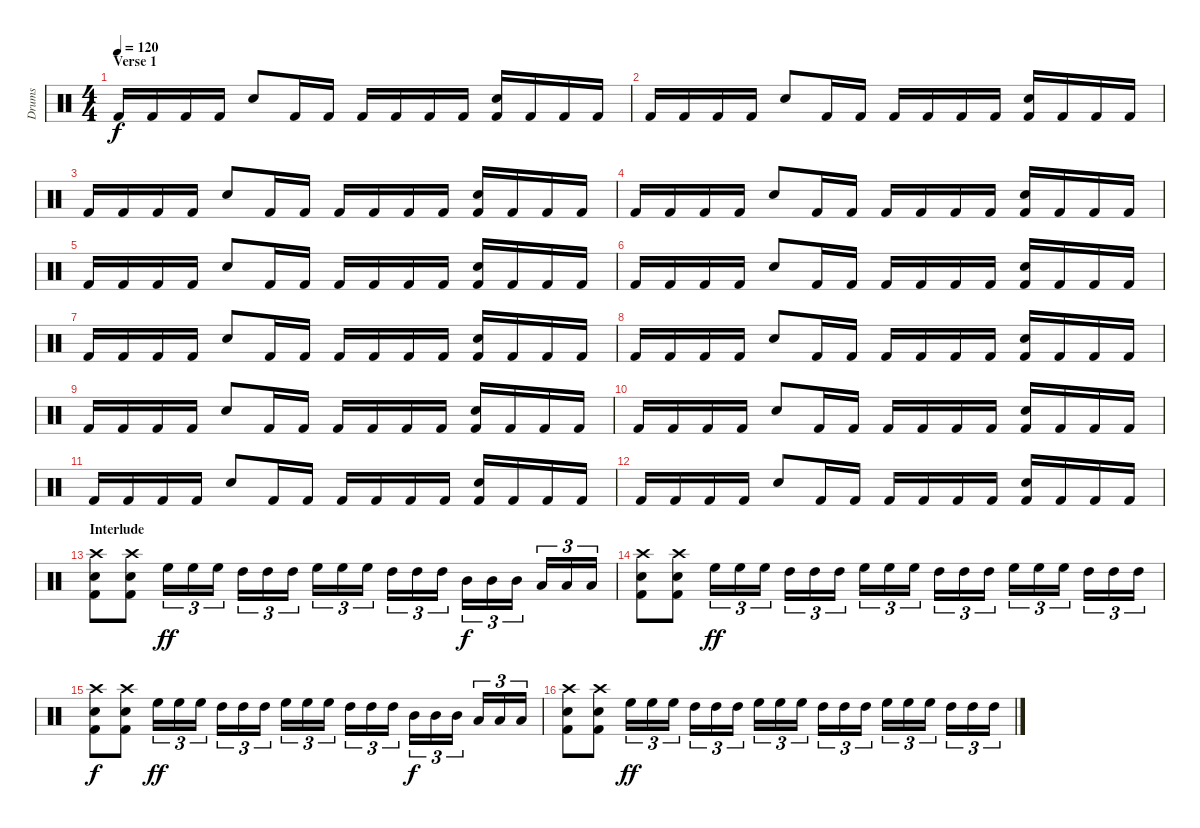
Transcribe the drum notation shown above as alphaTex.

\track ("Drums" "Drums") {instrument percussion}
\staff {score}
\articulation defaults
\ts (4 4)
\section ("" "Verse 1")
\tempo 120
\clef neutral
\ks c "Kick (hit) 2".16{dy f} "Kick (hit) 2".16 "Kick (hit) 2".16 "Kick (hit) 2".16 "Electric Snare (hit)".8 "Kick (hit) 2".16 "Kick (hit) 2".16 "Kick (hit) 2".16 "Kick (hit) 2".16 "Kick (hit) 2".16 "Kick (hit) 2".16
("Electric Snare (hit)" "Kick (hit) 2").16 "Kick (hit) 2".16 "Kick (hit) 2".16 "Kick (hit) 2".16 |
"Kick (hit) 2".16 "Kick (hit) 2".16 "Kick (hit) 2".16 "Kick (hit) 2".16 "Electric Snare (hit)".8 "Kick (hit) 2".16 "Kick (hit) 2".16 "Kick (hit) 2".16 "Kick (hit) 2".16 "Kick (hit) 2".16 "Kick (hit) 2".16 ("Electric Snare (hit)" "Kick (hit) 2").16 "Kick (hit) 2".16 "Kick (hit) 2".16 "Kick (hit) 2".16 |
"Kick (hit) 2".16 "Kick (hit) 2".16 "Kick (hit) 2".16 "Kick (hit) 2".16 "Electric Snare (hit)".8 "Kick (hit) 2".16 "Kick (hit) 2".16 "Kick (hit) 2".16 "Kick (hit) 2".16 "Kick (hit) 2".16 "Kick (hit) 2".16 ("Electric Snare (hit)" "Kick (hit) 2").16 "Kick (hit) 2".16 "Kick (hit) 2".16 "Kick (hit) 2".16 |
"Kick (hit) 2".16 "Kick (hit) 2".16 "Kick (hit) 2".16 "Kick (hit) 2".16 "Electric Snare (hit)".8 "Kick (hit) 2".16 "Kick (hit) 2".16 "Kick (hit) 2".16 "Kick (hit) 2".16 "Kick (hit) 2".16 "Kick (hit) 2".16 ("Electric Snare (hit)" "Kick (hit) 2").16 "Kick (hit) 2".16 "Kick (hit) 2".16 "Kick (hit) 2".16 |
"Kick (hit) 2".16 "Kick (hit) 2".16 "Kick (hit) 2".16 "Kick (hit) 2".16 "Electric Snare (hit)".8 "Kick (hit) 2".16 "Kick (hit) 2".16 "Kick (hit) 2".16 "Kick (hit) 2".16 "Kick (hit) 2".16 "Kick (hit) 2".16 ("Electric Snare (hit)" "Kick (hit) 2").16 "Kick (hit) 2".16 "Kick (hit) 2".16 "Kick (hit) 2".16 |
"Kick (hit) 2".16 "Kick (hit) 2".16 "Kick (hit) 2".16 "Kick (hit) 2".16 "Electric Snare (hit)".8 "Kick (hit) 2".16 "Kick (hit) 2".16 "Kick (hit) 2".16 "Kick (hit) 2".16 "Kick (hit) 2".16 "Kick (hit) 2".16 ("Electric Snare (hit)" "Kick (hit) 2").16 "Kick (hit) 2".16 "Kick (hit) 2".16 "Kick (hit) 2".16 |
"Kick (hit) 2".16 "Kick (hit) 2".16 "Kick (hit) 2".16 "Kick (hit) 2".16 "Electric Snare (hit)".8 "Kick (hit) 2".16 "Kick (hit) 2".16 "Kick (hit) 2".16 "Kick (hit) 2".16 "Kick (hit) 2".16 "Kick (hit) 2".16 ("Electric Snare (hit)" "Kick (hit) 2").16 "Kick (hit) 2".16 "Kick (hit) 2".16 "Kick (hit) 2".16 |
"Kick (hit) 2".16 "Kick (hit) 2".16 "Kick (hit) 2".16 "Kick (hit) 2".16 "Electric Snare (hit)".8 "Kick (hit) 2".16 "Kick (hit) 2".16 "Kick (hit) 2".16 "Kick (hit) 2".16 "Kick (hit) 2".16 "Kick (hit) 2".16 ("Electric Snare (hit)" "Kick (hit) 2").16 "Kick (hit) 2".16 "Kick (hit) 2".16 "Kick (hit) 2".16 |
"Kick (hit) 2".16 "Kick (hit) 2".16 "Kick (hit) 2".16 "Kick (hit) 2".16 "Electric Snare (hit)".8 "Kick (hit) 2".16 "Kick (hit) 2".16 "Kick (hit) 2".16 "Kick (hit) 2".16 "Kick (hit) 2".16 "Kick (hit) 2".16 ("Electric Snare (hit)" "Kick (hit) 2").16 "Kick (hit) 2".16 "Kick (hit) 2".16 "Kick (hit) 2".16 |
"Kick (hit) 2".16 "Kick (hit) 2".16 "Kick (hit) 2".16 "Kick (hit) 2".16 "Electric Snare (hit)".8 "Kick (hit) 2".16 "Kick (hit) 2".16 "Kick (hit) 2".16 "Kick (hit) 2".16 "Kick (hit) 2".16 "Kick (hit) 2".16 ("Electric Snare (hit)" "Kick (hit) 2").16 "Kick (hit) 2".16 "Kick (hit) 2".16 "Kick (hit) 2".16 |
"Kick (hit) 2".16 "Kick (hit) 2".16 "Kick (hit) 2".16 "Kick (hit) 2".16 "Electric Snare (hit)".8 "Kick (hit) 2".16 "Kick (hit) 2".16 "Kick (hit) 2".16 "Kick (hit) 2".16 "Kick (hit) 2".16 "Kick (hit) 2".16 ("Electric Snare (hit)" "Kick (hit) 2").16 "Kick (hit) 2".16 "Kick (hit) 2".16 "Kick (hit) 2".16 |
"Kick (hit) 2".16 "Kick (hit) 2".16 "Kick (hit) 2".16 "Kick (hit) 2".16 "Electric Snare (hit)".8 "Kick (hit) 2".16 "Kick (hit) 2".16 "Kick (hit) 2".16 "Kick (hit) 2".16 "Kick (hit) 2".16 "Kick (hit) 2".16 ("Electric Snare (hit)" "Kick (hit) 2").16 "Kick (hit) 2".16 "Kick (hit) 2".16 "Kick (hit) 2".16 |
\section ("" "Interlude")
("Crash high (hit)" "Electric Snare (hit)" "Kick (hit) 2").8 ("Crash high (hit)" "Electric Snare (hit)" "Kick (hit) 2").8 "High Floor Tom (hit)".16{tu (3 2) dy ff} "High Floor Tom (hit)".16{tu (3 2)} "High Floor Tom (hit)".16{tu (3 2)} "High Tom (hit)".16{tu (3 2)} "High Tom (hit)".16{tu (3 2)} "High Tom (hit)".16{tu (3 2)} "High Floor Tom (hit)".16{tu (3 2)} "High Floor Tom (hit)".16{tu (3 2)} "High Floor Tom (hit)".16{tu (3 2)} "High Tom (hit)".16{tu (3 2)} "High Tom (hit)".16{tu (3 2)} "High Tom (hit)".16{tu (3 2)} "Mid Tom (hit)".16{tu (3 2) dy f} "Mid Tom (hit)".16{tu (3 2)} "Mid Tom (hit)".16{tu (3 2)} "Low Tom (hit)".16{tu (3 2)} "Low Tom (hit)".16{tu (3 2)} "Low Tom (hit)".16{tu (3 2)} |
("Crash high (hit)" "Electric Snare (hit)" "Kick (hit) 2").8 ("Crash high (hit)" "Electric Snare (hit)" "Kick (hit) 2").8 "High Floor Tom (hit)".16{tu (3 2) dy ff} "High Floor Tom (hit)".16{tu (3 2)} "High Floor Tom (hit)".16{tu (3 2)} "High Tom (hit)".16{tu (3 2)} "High Tom (hit)".16{tu (3 2)} "High Tom (hit)".16{tu (3 2)} "High Floor Tom (hit)".16{tu (3 2)} "High Floor Tom (hit)".16{tu (3 2)} "High Floor Tom (hit)".16{tu (3 2)} "High Tom (hit)".16{tu (3 2)} "High Tom (hit)".16{tu (3 2)} "High Tom (hit)".16{tu (3 2)} "High Floor Tom (hit)".16{tu (3 2)} "High Floor Tom (hit)".16{tu (3 2)} "High Floor Tom (hit)".16{tu (3 2)} "High Tom (hit)".16{tu (3 2)} "High Tom (hit)".16{tu (3 2)} "High Tom (hit)".16{tu (3 2)} |
("Crash high (hit)" "Electric Snare (hit)" "Kick (hit) 2").8{dy f} ("Crash high (hit)" "Electric Snare (hit)" "Kick (hit) 2").8 "High Floor Tom (hit)".16{tu (3 2) dy ff} "High Floor Tom (hit)".16{tu (3 2)} "High Floor Tom (hit)".16{tu (3 2)} "High Tom (hit)".16{tu (3 2)} "High Tom (hit)".16{tu (3 2)} "High Tom (hit)".16{tu (3 2)} "High Floor Tom (hit)".16{tu (3 2)} "High Floor Tom (hit)".16{tu (3 2)} "High Floor Tom (hit)".16{tu (3 2)} "High Tom (hit)".16{tu (3 2)} "High Tom (hit)".16{tu (3 2)} "High Tom (hit)".16{tu (3 2)} "Mid Tom (hit)".16{tu (3 2) dy f} "Mid Tom (hit)".16{tu (3 2)} "Mid Tom (hit)".16{tu (3 2)} "Low Tom (hit)".16{tu (3 2)} "Low Tom (hit)".16{tu (3 2)} "Low Tom (hit)".16{tu (3 2)} |
("Crash high (hit)" "Electric Snare (hit)" "Kick (hit) 2").8 ("Crash high (hit)" "Electric Snare (hit)" "Kick (hit) 2").8 "High Floor Tom (hit)".16{tu (3 2) dy ff} "High Floor Tom (hit)".16{tu (3 2)} "High Floor Tom (hit)".16{tu (3 2)} "High Tom (hit)".16{tu (3 2)} "High Tom (hit)".16{tu (3 2)} "High Tom (hit)".16{tu (3 2)} "High Floor Tom (hit)".16{tu (3 2)} "High Floor Tom (hit)".16{tu (3 2)} "High Floor Tom (hit)".16{tu (3 2)} "High Tom (hit)".16{tu (3 2)} "High Tom (hit)".16{tu (3 2)} "High Tom (hit)".16{tu (3 2)} "High Floor Tom (hit)".16{tu (3 2)} "High Floor Tom (hit)".16{tu (3 2)} "High Floor Tom (hit)".16{tu (3 2)} "High Tom (hit)".16{tu (3 2)} "High Tom (hit)".16{tu (3 2)} "High Tom (hit)".16{tu (3 2)}
